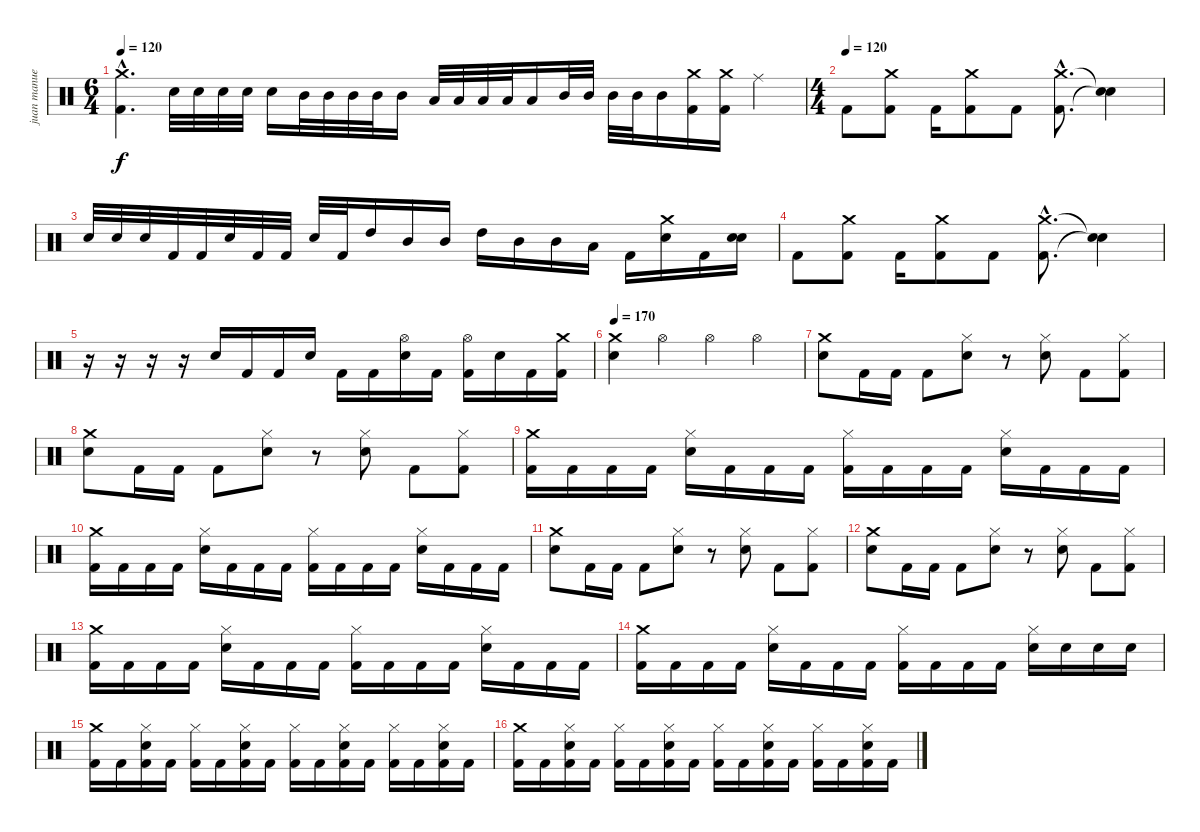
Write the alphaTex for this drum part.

\track ("juan manuel" "juan manue") {instrument percussion}
\staff {score}
\articulation defaults
\ts (6 4)
\tempo 120
\clef neutral
\ks c
("Crash medium (hit)"{hac} "Kick (hit) 2"{hac}).4{d dy f} "Electric Snare (hit)".32 "Electric Snare (hit)".32 "Electric Snare (hit)".32 "Electric Snare (hit)".32 "Electric Snare (hit)".16 "Mid Tom (hit)".32 "Mid Tom (hit)".32 "Mid Tom (hit)".32 "Mid Tom (hit)".32 "Mid Tom (hit)".16 "Low Tom (hit)".32 "Low Tom (hit)".32 "Low Tom (hit)".32 "Low Tom (hit)".32 "Low Tom (hit)".16 "Mid Tom (hit)".32 "Mid Tom (hit)".32 "Mid Tom (hit)".32 "Mid Tom (hit)".32 "Mid Tom (hit)".16 ("Crash medium (hit)" "Kick (hit) 2").16 ("Crash medium (hit)" "Kick (hit) 2").16 "Ride (middle)".4 |
\ts (4 4)
\tempo (120)
"Kick (hit) 2".8 ("Crash medium (hit)" "Kick (hit) 2").8 "Kick (hit) 2".16 ("Crash medium (hit)" "Kick (hit) 2").8 "Kick (hit) 2".8 ("Crash medium (hit)"{hac} "Kick (hit) 2"{hac}).8{d} ("Snare (hit)"{t} "Snare (hit)"{t}).4 |
"Electric Snare (hit)".32 "Electric Snare (hit)".32 "Electric Snare (hit)".32 "Kick (hit) 2".32 "Kick (hit) 2".32 "Electric Snare (hit)".32 "Kick (hit) 2".32 "Kick (hit) 2".32 "Electric Snare (hit)".32 "Kick (hit) 2".32 "High Tom (hit)".16 "Mid Tom (hit)".16 "Mid Tom (hit)".16 "High Tom (hit)".16 "Mid Tom (hit)".16 "Mid Tom (hit)".16 "Low Tom (hit)".16 "Kick (hit) 2".16 ("Electric Snare (hit)" "Crash medium (hit)").16 "Kick (hit) 2".16 ("Electric Snare (hit)" "Snare (hit)").16 |
"Kick (hit) 2".8 ("Crash medium (hit)" "Kick (hit) 2").8 "Kick (hit) 2".16 ("Crash medium (hit)" "Kick (hit) 2").8 "Kick (hit) 2".8 ("Crash medium (hit)"{hac} "Kick (hit) 2"{hac}).8{d} ("Snare (hit)"{t} "Snare (hit)"{t}).4 |
r.16 r.16 r.16 r.16 "Electric Snare (hit)".16 "Kick (hit) 2".16 "Kick (hit) 2".16 "Electric Snare (hit)".16 "Kick (hit) 2".16 "Kick (hit) 2".16 ("Electric Snare (hit)" "Hi-Hat (open)").16 "Kick (hit) 2".16 ("Kick (hit) 2" "Hi-Hat (open)").16 "Electric Snare (hit)".16 "Kick (hit) 2".16 ("Kick (hit) 2" "Crash medium (hit)").16 |
\tempo 170
("Electric Snare (hit)" "Crash medium (hit)").4 "Hi-Hat (open)".4 "Hi-Hat (open)".4 "Hi-Hat (open)".4 |
("Crash medium (hit)" "Electric Snare (hit)").8 "Kick (hit) 2".16 "Kick (hit) 2".16 "Kick (hit) 2".8 ("Hi-Hat (closed)" "Electric Snare (hit)").8 r.8 ("Hi-Hat (closed)" "Electric Snare (hit)").8 "Kick (hit) 2".8 ("Hi-Hat (closed)" "Kick (hit) 2").8 |
("Crash medium (hit)" "Electric Snare (hit)").8 "Kick (hit) 2".16 "Kick (hit) 2".16 "Kick (hit) 2".8 ("Hi-Hat (closed)" "Electric Snare (hit)").8 r.8 ("Hi-Hat (closed)" "Electric Snare (hit)").8 "Kick (hit) 2".8 ("Hi-Hat (closed)" "Kick (hit) 2").8 |
("Crash medium (hit)" "Kick (hit) 2").16 "Kick (hit) 2".16 "Kick (hit) 2".16 "Kick (hit) 2".16 ("Hi-Hat (closed)" "Electric Snare (hit)").16 "Kick (hit) 2".16 "Kick (hit) 2".16 "Kick (hit) 2".16 ("Hi-Hat (closed)" "Kick (hit) 2").16 "Kick (hit) 2".16 "Kick (hit) 2".16 "Kick (hit) 2".16 ("Hi-Hat (closed)" "Electric Snare (hit)").16 "Kick (hit) 2".16 "Kick (hit) 2".16 "Kick (hit) 2".16 |
("Crash medium (hit)" "Kick (hit) 2").16 "Kick (hit) 2".16 "Kick (hit) 2".16 "Kick (hit) 2".16 ("Hi-Hat (closed)" "Electric Snare (hit)").16 "Kick (hit) 2".16 "Kick (hit) 2".16 "Kick (hit) 2".16 ("Hi-Hat (closed)" "Kick (hit) 2").16 "Kick (hit) 2".16 "Kick (hit) 2".16 "Kick (hit) 2".16 ("Hi-Hat (closed)" "Electric Snare (hit)").16 "Kick (hit) 2".16 "Kick (hit) 2".16 "Kick (hit) 2".16 |
("Crash medium (hit)" "Electric Snare (hit)").8 "Kick (hit) 2".16 "Kick (hit) 2".16 "Kick (hit) 2".8 ("Hi-Hat (closed)" "Electric Snare (hit)").8 r.8 ("Hi-Hat (closed)" "Electric Snare (hit)").8 "Kick (hit) 2".8 ("Hi-Hat (closed)" "Kick (hit) 2").8 |
("Crash medium (hit)" "Electric Snare (hit)").8 "Kick (hit) 2".16 "Kick (hit) 2".16 "Kick (hit) 2".8 ("Hi-Hat (closed)" "Electric Snare (hit)").8 r.8 ("Hi-Hat (closed)" "Electric Snare (hit)").8 "Kick (hit) 2".8 ("Hi-Hat (closed)" "Kick (hit) 2").8 |
("Crash medium (hit)" "Kick (hit) 2").16 "Kick (hit) 2".16 "Kick (hit) 2".16 "Kick (hit) 2".16 ("Hi-Hat (closed)" "Electric Snare (hit)").16 "Kick (hit) 2".16 "Kick (hit) 2".16 "Kick (hit) 2".16 ("Hi-Hat (closed)" "Kick (hit) 2").16 "Kick (hit) 2".16 "Kick (hit) 2".16 "Kick (hit) 2".16 ("Hi-Hat (closed)" "Electric Snare (hit)").16 "Kick (hit) 2".16 "Kick (hit) 2".16 "Kick (hit) 2".16 |
("Crash medium (hit)" "Kick (hit) 2").16 "Kick (hit) 2".16 "Kick (hit) 2".16 "Kick (hit) 2".16 ("Hi-Hat (closed)" "Electric Snare (hit)").16 "Kick (hit) 2".16 "Kick (hit) 2".16 "Kick (hit) 2".16 ("Hi-Hat (closed)" "Kick (hit) 2").16 "Kick (hit) 2".16 "Kick (hit) 2".16 "Kick (hit) 2".16 ("Hi-Hat (closed)" "Electric Snare (hit)").16 "Electric Snare (hit)".16 "Electric Snare (hit)".16 "Electric Snare (hit)".16 |
("Crash medium (hit)" "Kick (hit) 2").16 "Kick (hit) 2".16 ("Hi-Hat (closed)" "Electric Snare (hit)" "Kick (hit) 2").16 "Kick (hit) 2".16 ("Hi-Hat (closed)" "Kick (hit) 2").16 "Kick (hit) 2".16 ("Hi-Hat (closed)" "Electric Snare (hit)" "Kick (hit) 2").16 "Kick (hit) 2".16 ("Hi-Hat (closed)" "Kick (hit) 2").16 "Kick (hit) 2".16 ("Hi-Hat (closed)" "Electric Snare (hit)" "Kick (hit) 2").16 "Kick (hit) 2".16 ("Hi-Hat (closed)" "Kick (hit) 2").16 "Kick (hit) 2".16 ("Hi-Hat (closed)" "Electric Snare (hit)" "Kick (hit) 2").16 "Kick (hit) 2".16 |
("Crash medium (hit)" "Kick (hit) 2").16 "Kick (hit) 2".16 ("Hi-Hat (closed)" "Electric Snare (hit)" "Kick (hit) 2").16 "Kick (hit) 2".16 ("Hi-Hat (closed)" "Kick (hit) 2").16 "Kick (hit) 2".16 ("Hi-Hat (closed)" "Electric Snare (hit)" "Kick (hit) 2").16 "Kick (hit) 2".16 ("Hi-Hat (closed)" "Kick (hit) 2").16 "Kick (hit) 2".16 ("Hi-Hat (closed)" "Electric Snare (hit)" "Kick (hit) 2").16 "Kick (hit) 2".16 ("Hi-Hat (closed)" "Kick (hit) 2").16 "Kick (hit) 2".16 ("Hi-Hat (closed)" "Electric Snare (hit)" "Kick (hit) 2").16 "Kick (hit) 2".16
